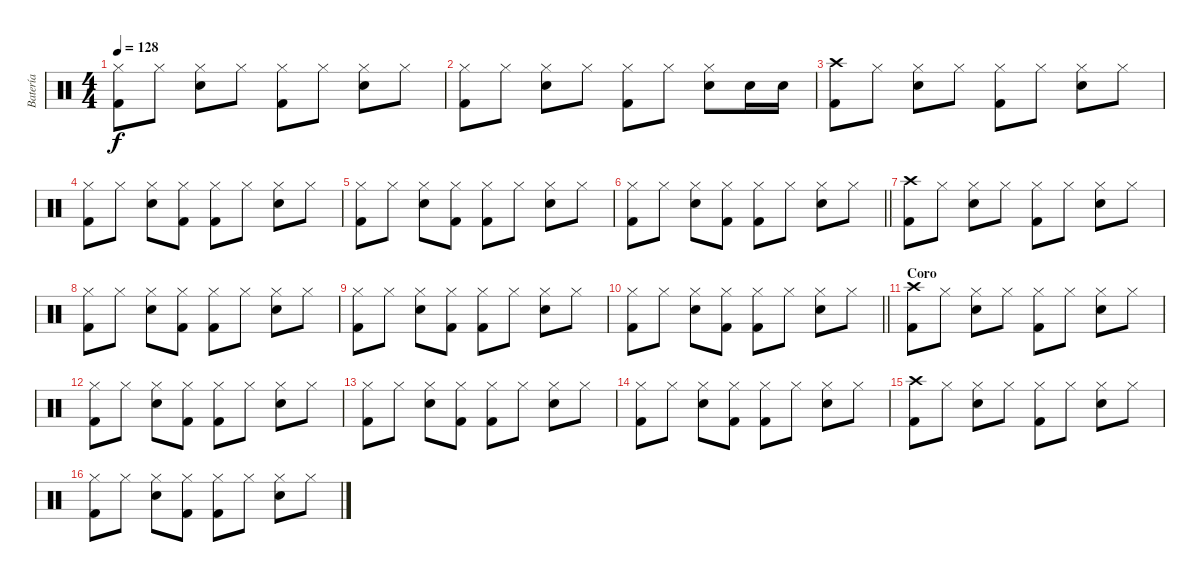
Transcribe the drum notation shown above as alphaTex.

\track ("Batería" "Batería") {instrument percussion}
\staff {score}
\articulation defaults
\ts (4 4)
\tempo 128
\clef neutral
\ks c
("Hi-Hat (closed)" "Kick (hit) 2").8{dy f} "Hi-Hat (closed)".8 ("Hi-Hat (closed)" "Electric Snare (hit)").8 "Hi-Hat (closed)".8 ("Hi-Hat (closed)" "Kick (hit) 2").8 "Hi-Hat (closed)".8 ("Hi-Hat (closed)" "Electric Snare (hit)").8 "Hi-Hat (closed)".8 |
("Hi-Hat (closed)" "Kick (hit) 2").8 "Hi-Hat (closed)".8 ("Hi-Hat (closed)" "Electric Snare (hit)").8 "Hi-Hat (closed)".8 ("Hi-Hat (closed)" "Kick (hit) 2").8 "Hi-Hat (closed)".8 ("Hi-Hat (closed)" "Electric Snare (hit)").8 "Electric Snare (hit)".16 "Electric Snare (hit)".16 |
("Kick (hit) 2" "Crash high (hit)").8 "Hi-Hat (closed)".8 ("Hi-Hat (closed)" "Electric Snare (hit)").8 "Hi-Hat (closed)".8 ("Hi-Hat (closed)" "Kick (hit) 2").8 "Hi-Hat (closed)".8 ("Hi-Hat (closed)" "Electric Snare (hit)").8 "Hi-Hat (closed)".8 |
("Hi-Hat (closed)" "Kick (hit) 2").8 "Hi-Hat (closed)".8 ("Hi-Hat (closed)" "Electric Snare (hit)").8 ("Hi-Hat (closed)" "Kick (hit) 2").8 ("Hi-Hat (closed)" "Kick (hit) 2").8 "Hi-Hat (closed)".8 ("Hi-Hat (closed)" "Electric Snare (hit)").8 "Hi-Hat (closed)".8 |
("Hi-Hat (closed)" "Kick (hit) 2").8 "Hi-Hat (closed)".8 ("Hi-Hat (closed)" "Electric Snare (hit)").8 ("Hi-Hat (closed)" "Kick (hit) 2").8 ("Hi-Hat (closed)" "Kick (hit) 2").8 "Hi-Hat (closed)".8 ("Hi-Hat (closed)" "Electric Snare (hit)").8 "Hi-Hat (closed)".8 |
\barLineRight lightlight
("Hi-Hat (closed)" "Kick (hit) 2").8 "Hi-Hat (closed)".8 ("Hi-Hat (closed)" "Electric Snare (hit)").8 ("Hi-Hat (closed)" "Kick (hit) 2").8 ("Hi-Hat (closed)" "Kick (hit) 2").8 "Hi-Hat (closed)".8 ("Hi-Hat (closed)" "Electric Snare (hit)").8 "Hi-Hat (closed)".8 |
("Kick (hit) 2" "Crash high (hit)").8 "Hi-Hat (closed)".8 ("Hi-Hat (closed)" "Electric Snare (hit)").8 "Hi-Hat (closed)".8 ("Hi-Hat (closed)" "Kick (hit) 2").8 "Hi-Hat (closed)".8 ("Hi-Hat (closed)" "Electric Snare (hit)").8 "Hi-Hat (closed)".8 |
("Hi-Hat (closed)" "Kick (hit) 2").8 "Hi-Hat (closed)".8 ("Hi-Hat (closed)" "Electric Snare (hit)").8 ("Hi-Hat (closed)" "Kick (hit) 2").8 ("Hi-Hat (closed)" "Kick (hit) 2").8 "Hi-Hat (closed)".8 ("Hi-Hat (closed)" "Electric Snare (hit)").8 "Hi-Hat (closed)".8 |
("Hi-Hat (closed)" "Kick (hit) 2").8 "Hi-Hat (closed)".8 ("Hi-Hat (closed)" "Electric Snare (hit)").8 ("Hi-Hat (closed)" "Kick (hit) 2").8 ("Hi-Hat (closed)" "Kick (hit) 2").8 "Hi-Hat (closed)".8 ("Hi-Hat (closed)" "Electric Snare (hit)").8 "Hi-Hat (closed)".8 |
\barLineRight lightlight
("Hi-Hat (closed)" "Kick (hit) 2").8 "Hi-Hat (closed)".8 ("Hi-Hat (closed)" "Electric Snare (hit)").8 ("Hi-Hat (closed)" "Kick (hit) 2").8 ("Hi-Hat (closed)" "Kick (hit) 2").8 "Hi-Hat (closed)".8 ("Hi-Hat (closed)" "Electric Snare (hit)").8 "Hi-Hat (closed)".8 |
\section ("" "Coro")
("Kick (hit) 2" "Crash high (hit)").8 "Hi-Hat (closed)".8 ("Hi-Hat (closed)" "Electric Snare (hit)").8 "Hi-Hat (closed)".8 ("Hi-Hat (closed)" "Kick (hit) 2").8 "Hi-Hat (closed)".8 ("Hi-Hat (closed)" "Electric Snare (hit)").8 "Hi-Hat (closed)".8 |
("Hi-Hat (closed)" "Kick (hit) 2").8 "Hi-Hat (closed)".8 ("Hi-Hat (closed)" "Electric Snare (hit)").8 ("Hi-Hat (closed)" "Kick (hit) 2").8 ("Hi-Hat (closed)" "Kick (hit) 2").8 "Hi-Hat (closed)".8 ("Hi-Hat (closed)" "Electric Snare (hit)").8 "Hi-Hat (closed)".8 |
("Hi-Hat (closed)" "Kick (hit) 2").8 "Hi-Hat (closed)".8 ("Hi-Hat (closed)" "Electric Snare (hit)").8 ("Hi-Hat (closed)" "Kick (hit) 2").8 ("Hi-Hat (closed)" "Kick (hit) 2").8 "Hi-Hat (closed)".8 ("Hi-Hat (closed)" "Electric Snare (hit)").8 "Hi-Hat (closed)".8 |
("Hi-Hat (closed)" "Kick (hit) 2").8 "Hi-Hat (closed)".8 ("Hi-Hat (closed)" "Electric Snare (hit)").8 ("Hi-Hat (closed)" "Kick (hit) 2").8 ("Hi-Hat (closed)" "Kick (hit) 2").8 "Hi-Hat (closed)".8 ("Hi-Hat (closed)" "Electric Snare (hit)").8 "Hi-Hat (closed)".8 |
("Kick (hit) 2" "Crash high (hit)").8 "Hi-Hat (closed)".8 ("Hi-Hat (closed)" "Electric Snare (hit)").8 "Hi-Hat (closed)".8 ("Hi-Hat (closed)" "Kick (hit) 2").8 "Hi-Hat (closed)".8 ("Hi-Hat (closed)" "Electric Snare (hit)").8 "Hi-Hat (closed)".8 |
("Hi-Hat (closed)" "Kick (hit) 2").8 "Hi-Hat (closed)".8 ("Hi-Hat (closed)" "Electric Snare (hit)").8 ("Hi-Hat (closed)" "Kick (hit) 2").8 ("Hi-Hat (closed)" "Kick (hit) 2").8 "Hi-Hat (closed)".8 ("Hi-Hat (closed)" "Electric Snare (hit)").8 "Hi-Hat (closed)".8
